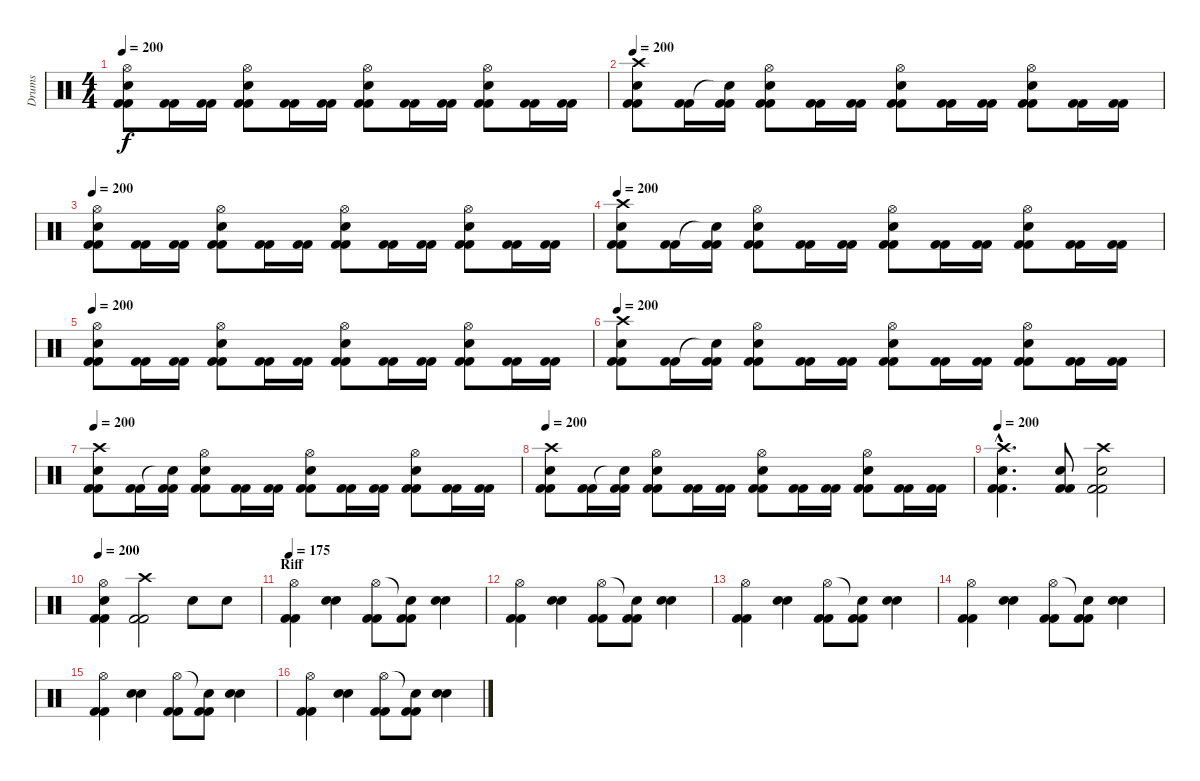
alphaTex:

\track ("Drums" "Drums") {instrument percussion}
\staff {score}
\articulation defaults
\ts (4 4)
\tempo 200
\clef neutral
\ks c
("Hi-Hat (open)" "Snare (hit) 2" "Kick (hit) 2" "Kick (hit) 2").8{dy f} ("Kick (hit) 2" "Kick (hit) 2").16 ("Kick (hit) 2" "Kick (hit) 2").16 ("Hi-Hat (open)" "Snare (hit) 2" "Kick (hit) 2" "Kick (hit) 2").8 ("Kick (hit) 2" "Kick (hit) 2").16 ("Kick (hit) 2" "Kick (hit) 2").16 ("Hi-Hat (open)" "Snare (hit) 2" "Kick (hit) 2" "Kick (hit) 2").8 ("Kick (hit) 2" "Kick (hit) 2").16 ("Kick (hit) 2" "Kick (hit) 2").16 ("Hi-Hat (open)" "Snare (hit) 2" "Kick (hit) 2" "Kick (hit) 2").8 ("Kick (hit) 2" "Kick (hit) 2").16 ("Kick (hit) 2" "Kick (hit) 2").16 |
\tempo 200
("Crash high (hit)" "Snare (hit) 2" "Kick (hit) 2" "Kick (hit) 2").8 ("Kick (hit) 2" "Kick (hit) 2").16 ("Snare (hit)"{t} "Kick (hit) 2" "Kick (hit) 2").16 ("Hi-Hat (open)" "Snare (hit) 2" "Kick (hit) 2" "Kick (hit) 2").8 ("Kick (hit) 2" "Kick (hit) 2").16 ("Kick (hit) 2" "Kick (hit) 2").16 ("Hi-Hat (open)" "Snare (hit) 2" "Kick (hit) 2" "Kick (hit) 2").8 ("Kick (hit) 2" "Kick (hit) 2").16 ("Kick (hit) 2" "Kick (hit) 2").16 ("Hi-Hat (open)" "Snare (hit) 2" "Kick (hit) 2" "Kick (hit) 2").8 ("Kick (hit) 2" "Kick (hit) 2").16 ("Kick (hit) 2" "Kick (hit) 2").16 |
\tempo 200
("Hi-Hat (open)" "Snare (hit) 2" "Kick (hit) 2" "Kick (hit) 2").8 ("Kick (hit) 2" "Kick (hit) 2").16 ("Kick (hit) 2" "Kick (hit) 2").16 ("Hi-Hat (open)" "Snare (hit) 2" "Kick (hit) 2" "Kick (hit) 2").8 ("Kick (hit) 2" "Kick (hit) 2").16 ("Kick (hit) 2" "Kick (hit) 2").16 ("Hi-Hat (open)" "Snare (hit) 2" "Kick (hit) 2" "Kick (hit) 2").8 ("Kick (hit) 2" "Kick (hit) 2").16 ("Kick (hit) 2" "Kick (hit) 2").16 ("Hi-Hat (open)" "Snare (hit) 2" "Kick (hit) 2" "Kick (hit) 2").8 ("Kick (hit) 2" "Kick (hit) 2").16 ("Kick (hit) 2" "Kick (hit) 2").16 |
\tempo 200
("Crash high (hit)" "Snare (hit) 2" "Kick (hit) 2" "Kick (hit) 2").8 ("Kick (hit) 2" "Kick (hit) 2").16 ("Snare (hit)"{t} "Kick (hit) 2" "Kick (hit) 2").16 ("Hi-Hat (open)" "Snare (hit) 2" "Kick (hit) 2" "Kick (hit) 2").8 ("Kick (hit) 2" "Kick (hit) 2").16 ("Kick (hit) 2" "Kick (hit) 2").16 ("Hi-Hat (open)" "Snare (hit) 2" "Kick (hit) 2" "Kick (hit) 2").8 ("Kick (hit) 2" "Kick (hit) 2").16 ("Kick (hit) 2" "Kick (hit) 2").16 ("Hi-Hat (open)" "Snare (hit) 2" "Kick (hit) 2" "Kick (hit) 2").8 ("Kick (hit) 2" "Kick (hit) 2").16 ("Kick (hit) 2" "Kick (hit) 2").16 |
\tempo 200
("Hi-Hat (open)" "Snare (hit) 2" "Kick (hit) 2" "Kick (hit) 2").8 ("Kick (hit) 2" "Kick (hit) 2").16 ("Kick (hit) 2" "Kick (hit) 2").16 ("Hi-Hat (open)" "Snare (hit) 2" "Kick (hit) 2" "Kick (hit) 2").8 ("Kick (hit) 2" "Kick (hit) 2").16 ("Kick (hit) 2" "Kick (hit) 2").16 ("Hi-Hat (open)" "Snare (hit) 2" "Kick (hit) 2" "Kick (hit) 2").8 ("Kick (hit) 2" "Kick (hit) 2").16 ("Kick (hit) 2" "Kick (hit) 2").16 ("Hi-Hat (open)" "Snare (hit) 2" "Kick (hit) 2" "Kick (hit) 2").8 ("Kick (hit) 2" "Kick (hit) 2").16 ("Kick (hit) 2" "Kick (hit) 2").16 |
\tempo 200
("Crash high (hit)" "Snare (hit) 2" "Kick (hit) 2" "Kick (hit) 2").8 ("Kick (hit) 2" "Kick (hit) 2").16 ("Snare (hit)"{t} "Kick (hit) 2" "Kick (hit) 2").16 ("Hi-Hat (open)" "Snare (hit) 2" "Kick (hit) 2" "Kick (hit) 2").8 ("Kick (hit) 2" "Kick (hit) 2").16 ("Kick (hit) 2" "Kick (hit) 2").16 ("Hi-Hat (open)" "Snare (hit) 2" "Kick (hit) 2" "Kick (hit) 2").8 ("Kick (hit) 2" "Kick (hit) 2").16 ("Kick (hit) 2" "Kick (hit) 2").16 ("Hi-Hat (open)" "Snare (hit) 2" "Kick (hit) 2" "Kick (hit) 2").8 ("Kick (hit) 2" "Kick (hit) 2").16 ("Kick (hit) 2" "Kick (hit) 2").16 |
\tempo 200
("Crash high (hit)" "Snare (hit) 2" "Kick (hit) 2" "Kick (hit) 2").8 ("Kick (hit) 2" "Kick (hit) 2").16 ("Snare (hit)"{t} "Kick (hit) 2" "Kick (hit) 2").16 ("Hi-Hat (open)" "Snare (hit) 2" "Kick (hit) 2" "Kick (hit) 2").8 ("Kick (hit) 2" "Kick (hit) 2").16 ("Kick (hit) 2" "Kick (hit) 2").16 ("Hi-Hat (open)" "Snare (hit) 2" "Kick (hit) 2" "Kick (hit) 2").8 ("Kick (hit) 2" "Kick (hit) 2").16 ("Kick (hit) 2" "Kick (hit) 2").16 ("Hi-Hat (open)" "Snare (hit) 2" "Kick (hit) 2" "Kick (hit) 2").8 ("Kick (hit) 2" "Kick (hit) 2").16 ("Kick (hit) 2" "Kick (hit) 2").16 |
\tempo 200
("Crash high (hit)" "Snare (hit) 2" "Kick (hit) 2" "Kick (hit) 2").8 ("Kick (hit) 2" "Kick (hit) 2").16 ("Snare (hit)"{t} "Kick (hit) 2" "Kick (hit) 2").16 ("Hi-Hat (open)" "Snare (hit) 2" "Kick (hit) 2" "Kick (hit) 2").8 ("Kick (hit) 2" "Kick (hit) 2").16 ("Kick (hit) 2" "Kick (hit) 2").16 ("Hi-Hat (open)" "Snare (hit) 2" "Kick (hit) 2" "Kick (hit) 2").8 ("Kick (hit) 2" "Kick (hit) 2").16 ("Kick (hit) 2" "Kick (hit) 2").16 ("Hi-Hat (open)" "Snare (hit) 2" "Kick (hit) 2" "Kick (hit) 2").8 ("Kick (hit) 2" "Kick (hit) 2").16 ("Kick (hit) 2" "Kick (hit) 2").16 |
\tempo 200
("Crash high (hit)"{hac} "Snare (hit) 2"{hac} "Kick (hit) 2"{hac} "Kick (hit) 2"{hac}).4{d} ("Electric Snare (hit)" "Kick (hit) 2" "Kick (hit) 2").8 ("Crash high (hit)" "Snare (hit) 2" "Kick (hit) 2" "Kick (hit) 2").2 |
\tempo 200
("Hi-Hat (open)" "Snare (hit) 2" "Kick (hit) 2" "Kick (hit) 2").4 ("Crash high (hit)" "Kick (hit) 2" "Kick (hit) 2").2 "Snare (hit) 2".8 "Snare (hit) 2".8 |
\section ("" "Riff")
\tempo 175
("Kick (hit) 2" "Kick (hit) 2" "Hi-Hat (open)").4 ("Snare (hit) 2" "Snare (hit) 2").4 ("Kick (hit) 2" "Kick (hit) 2" "Hi-Hat (open)").8 ("Kick (hit) 2" "Kick (hit) 2" "Snare (hit)"{t}).8 ("Snare (hit) 2" "Snare (hit) 2").4 |
("Kick (hit) 2" "Kick (hit) 2" "Hi-Hat (open)").4 ("Snare (hit) 2" "Snare (hit) 2").4 ("Kick (hit) 2" "Kick (hit) 2" "Hi-Hat (open)").8 ("Kick (hit) 2" "Kick (hit) 2" "Snare (hit)"{t}).8 ("Snare (hit) 2" "Snare (hit) 2").4 |
("Kick (hit) 2" "Kick (hit) 2" "Hi-Hat (open)").4 ("Snare (hit) 2" "Snare (hit) 2").4 ("Kick (hit) 2" "Kick (hit) 2" "Hi-Hat (open)").8 ("Kick (hit) 2" "Kick (hit) 2" "Snare (hit)"{t}).8 ("Snare (hit) 2" "Snare (hit) 2").4 |
("Kick (hit) 2" "Kick (hit) 2" "Hi-Hat (open)").4 ("Snare (hit) 2" "Snare (hit) 2").4 ("Kick (hit) 2" "Kick (hit) 2" "Hi-Hat (open)").8 ("Kick (hit) 2" "Kick (hit) 2" "Snare (hit)"{t}).8 ("Snare (hit) 2" "Snare (hit) 2").4 |
("Kick (hit) 2" "Kick (hit) 2" "Hi-Hat (open)").4 ("Snare (hit) 2" "Snare (hit) 2").4 ("Kick (hit) 2" "Kick (hit) 2" "Hi-Hat (open)").8 ("Kick (hit) 2" "Kick (hit) 2" "Snare (hit)"{t}).8 ("Snare (hit) 2" "Snare (hit) 2").4 |
("Kick (hit) 2" "Kick (hit) 2" "Hi-Hat (open)").4 ("Snare (hit) 2" "Snare (hit) 2").4 ("Kick (hit) 2" "Kick (hit) 2" "Hi-Hat (open)").8 ("Kick (hit) 2" "Kick (hit) 2" "Snare (hit)"{t}).8 ("Snare (hit) 2" "Snare (hit) 2").4
